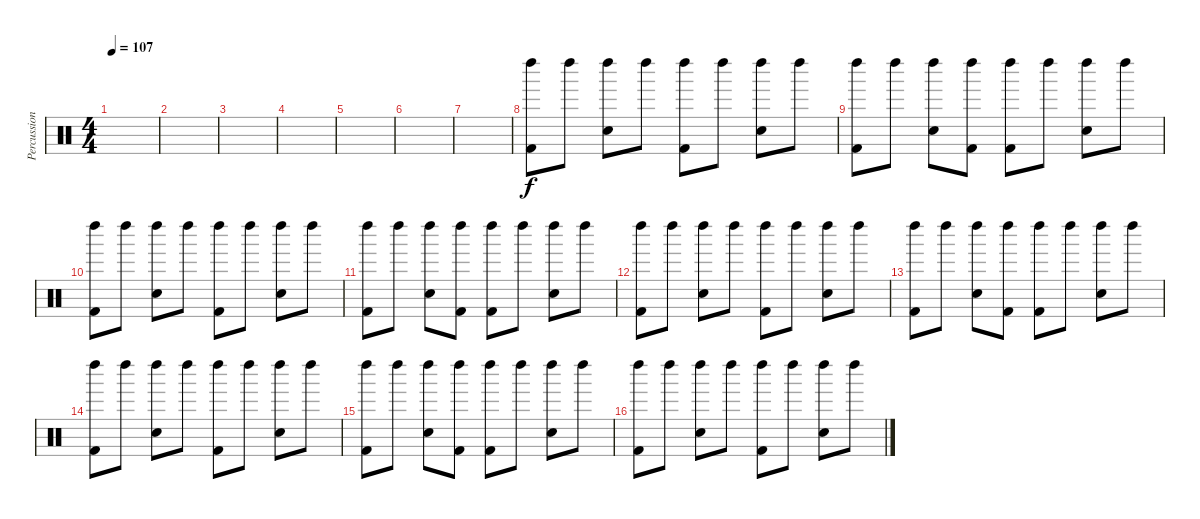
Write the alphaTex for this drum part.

\track ("Percussion" "Percussion") {instrument percussion}
\staff {score}
\articulation defaults
\ts (4 4)
\tempo 107
\clef neutral
\ks c
|
|
|
|
|
|
|
("Kick (hit) 2" "Left Maraca (hit)").8 "Left Maraca (hit)".8 ("Snare (hit) 2" "Left Maraca (hit)").8 "Left Maraca (hit)".8 ("Kick (hit) 2" "Left Maraca (hit)").8 "Left Maraca (hit)".8 ("Snare (hit) 2" "Left Maraca (hit)").8 "Left Maraca (hit)".8 |
("Kick (hit) 2" "Left Maraca (hit)").8 "Left Maraca (hit)".8 ("Snare (hit) 2" "Left Maraca (hit)").8 ("Kick (hit) 2" "Left Maraca (hit)").8 ("Kick (hit) 2" "Left Maraca (hit)").8 "Left Maraca (hit)".8 ("Snare (hit) 2" "Left Maraca (hit)").8 "Left Maraca (hit)".8 |
("Kick (hit) 2" "Left Maraca (hit)").8 "Left Maraca (hit)".8 ("Snare (hit) 2" "Left Maraca (hit)").8 "Left Maraca (hit)".8 ("Kick (hit) 2" "Left Maraca (hit)").8 "Left Maraca (hit)".8 ("Snare (hit) 2" "Left Maraca (hit)").8 "Left Maraca (hit)".8 |
("Kick (hit) 2" "Left Maraca (hit)").8 "Left Maraca (hit)".8 ("Snare (hit) 2" "Left Maraca (hit)").8 ("Kick (hit) 2" "Left Maraca (hit)").8 ("Kick (hit) 2" "Left Maraca (hit)").8 "Left Maraca (hit)".8 ("Snare (hit) 2" "Left Maraca (hit)").8 "Left Maraca (hit)".8 |
("Kick (hit) 2" "Left Maraca (hit)").8 "Left Maraca (hit)".8 ("Snare (hit) 2" "Left Maraca (hit)").8 "Left Maraca (hit)".8 ("Kick (hit) 2" "Left Maraca (hit)").8 "Left Maraca (hit)".8 ("Snare (hit) 2" "Left Maraca (hit)").8 "Left Maraca (hit)".8 |
("Kick (hit) 2" "Left Maraca (hit)").8 "Left Maraca (hit)".8 ("Snare (hit) 2" "Left Maraca (hit)").8 ("Kick (hit) 2" "Left Maraca (hit)").8 ("Kick (hit) 2" "Left Maraca (hit)").8 "Left Maraca (hit)".8 ("Snare (hit) 2" "Left Maraca (hit)").8 "Left Maraca (hit)".8 |
("Kick (hit) 2" "Left Maraca (hit)").8 "Left Maraca (hit)".8 ("Snare (hit) 2" "Left Maraca (hit)").8 "Left Maraca (hit)".8 ("Kick (hit) 2" "Left Maraca (hit)").8 "Left Maraca (hit)".8 ("Snare (hit) 2" "Left Maraca (hit)").8 "Left Maraca (hit)".8 |
("Kick (hit) 2" "Left Maraca (hit)").8 "Left Maraca (hit)".8 ("Snare (hit) 2" "Left Maraca (hit)").8 ("Kick (hit) 2" "Left Maraca (hit)").8 ("Kick (hit) 2" "Left Maraca (hit)").8 "Left Maraca (hit)".8 ("Snare (hit) 2" "Left Maraca (hit)").8 "Left Maraca (hit)".8 |
("Kick (hit) 2" "Left Maraca (hit)").8 "Left Maraca (hit)".8 ("Snare (hit) 2" "Left Maraca (hit)").8 "Left Maraca (hit)".8 ("Kick (hit) 2" "Left Maraca (hit)").8 "Left Maraca (hit)".8 ("Snare (hit) 2" "Left Maraca (hit)").8 "Left Maraca (hit)".8
